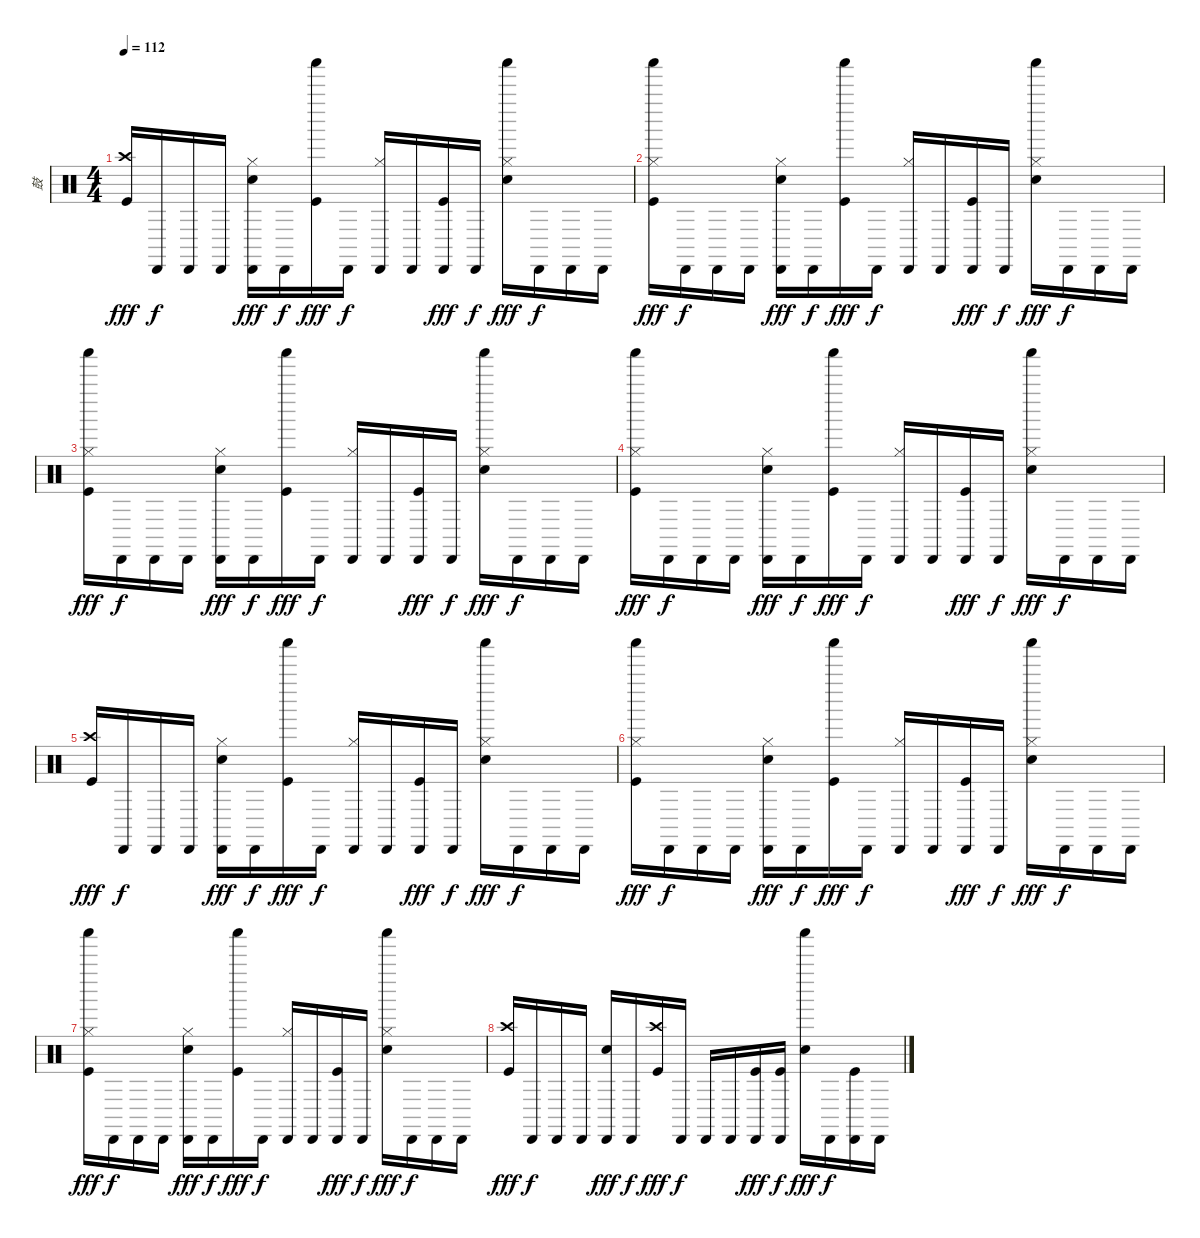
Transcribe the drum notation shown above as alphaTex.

\track ("鼓" "鼓") {instrument percussion}
\staff {score}
\articulation defaults
\ts (4 4)
\tempo 112
\clef neutral
\ks c
("Crash high (hit)" "Kick (hit)").16{dy fff} "Cabasa (hit)".16{dy f} "Cabasa (hit)".16 "Cabasa (hit)".16 ("Cabasa (hit)" "Hi-Hat (closed)" "Electric Snare (hit)").16{dy fff} "Cabasa (hit)".16{dy f} ("Shaker (hit)" "Kick (hit)").16{dy fff} "Cabasa (hit)".16{dy f} ("Cabasa (hit)" "Hi-Hat (closed)").16 "Cabasa (hit)".16 ("Cabasa (hit)" "Kick (hit)").16{dy fff} "Cabasa (hit)".16{dy f} ("Shaker (hit)" "Hi-Hat (closed)" "Electric Snare (hit)").16{dy fff} "Cabasa (hit)".16{dy f} "Cabasa (hit)".16 "Cabasa (hit)".16 |
("Shaker (hit)" "Hi-Hat (closed)" "Kick (hit)").16{dy fff} "Cabasa (hit)".16{dy f} "Cabasa (hit)".16 "Cabasa (hit)".16 ("Cabasa (hit)" "Hi-Hat (closed)" "Electric Snare (hit)").16{dy fff} "Cabasa (hit)".16{dy f} ("Shaker (hit)" "Kick (hit)").16{dy fff} "Cabasa (hit)".16{dy f} ("Cabasa (hit)" "Hi-Hat (closed)").16 "Cabasa (hit)".16 ("Cabasa (hit)" "Kick (hit)").16{dy fff} "Cabasa (hit)".16{dy f} ("Shaker (hit)" "Hi-Hat (closed)" "Electric Snare (hit)").16{dy fff} "Cabasa (hit)".16{dy f} "Cabasa (hit)".16 "Cabasa (hit)".16 |
("Shaker (hit)" "Hi-Hat (closed)" "Kick (hit)").16{dy fff} "Cabasa (hit)".16{dy f} "Cabasa (hit)".16 "Cabasa (hit)".16 ("Cabasa (hit)" "Hi-Hat (closed)" "Electric Snare (hit)").16{dy fff} "Cabasa (hit)".16{dy f} ("Shaker (hit)" "Kick (hit)").16{dy fff} "Cabasa (hit)".16{dy f} ("Cabasa (hit)" "Hi-Hat (closed)").16 "Cabasa (hit)".16 ("Cabasa (hit)" "Kick (hit)").16{dy fff} "Cabasa (hit)".16{dy f} ("Shaker (hit)" "Hi-Hat (closed)" "Electric Snare (hit)").16{dy fff} "Cabasa (hit)".16{dy f} "Cabasa (hit)".16 "Cabasa (hit)".16 |
("Shaker (hit)" "Hi-Hat (closed)" "Kick (hit)").16{dy fff} "Cabasa (hit)".16{dy f} "Cabasa (hit)".16 "Cabasa (hit)".16 ("Cabasa (hit)" "Hi-Hat (closed)" "Electric Snare (hit)").16{dy fff} "Cabasa (hit)".16{dy f} ("Shaker (hit)" "Kick (hit)").16{dy fff} "Cabasa (hit)".16{dy f} ("Cabasa (hit)" "Hi-Hat (closed)").16 "Cabasa (hit)".16 ("Cabasa (hit)" "Kick (hit)").16{dy fff} "Cabasa (hit)".16{dy f} ("Shaker (hit)" "Hi-Hat (closed)" "Electric Snare (hit)").16{dy fff} "Cabasa (hit)".16{dy f} "Cabasa (hit)".16 "Cabasa (hit)".16 |
("Crash high (hit)" "Kick (hit)").16{dy fff} "Cabasa (hit)".16{dy f} "Cabasa (hit)".16 "Cabasa (hit)".16 ("Cabasa (hit)" "Hi-Hat (closed)" "Electric Snare (hit)").16{dy fff} "Cabasa (hit)".16{dy f} ("Shaker (hit)" "Kick (hit)").16{dy fff} "Cabasa (hit)".16{dy f} ("Cabasa (hit)" "Hi-Hat (closed)").16 "Cabasa (hit)".16 ("Cabasa (hit)" "Kick (hit)").16{dy fff} "Cabasa (hit)".16{dy f} ("Shaker (hit)" "Hi-Hat (closed)" "Electric Snare (hit)").16{dy fff} "Cabasa (hit)".16{dy f} "Cabasa (hit)".16 "Cabasa (hit)".16 |
("Shaker (hit)" "Hi-Hat (closed)" "Kick (hit)").16{dy fff} "Cabasa (hit)".16{dy f} "Cabasa (hit)".16 "Cabasa (hit)".16 ("Cabasa (hit)" "Hi-Hat (closed)" "Electric Snare (hit)").16{dy fff} "Cabasa (hit)".16{dy f} ("Shaker (hit)" "Kick (hit)").16{dy fff} "Cabasa (hit)".16{dy f} ("Cabasa (hit)" "Hi-Hat (closed)").16 "Cabasa (hit)".16 ("Cabasa (hit)" "Kick (hit)").16{dy fff} "Cabasa (hit)".16{dy f} ("Shaker (hit)" "Hi-Hat (closed)" "Electric Snare (hit)").16{dy fff} "Cabasa (hit)".16{dy f} "Cabasa (hit)".16 "Cabasa (hit)".16 |
("Shaker (hit)" "Hi-Hat (closed)" "Kick (hit)").16{dy fff} "Cabasa (hit)".16{dy f} "Cabasa (hit)".16 "Cabasa (hit)".16 ("Cabasa (hit)" "Hi-Hat (closed)" "Electric Snare (hit)").16{dy fff} "Cabasa (hit)".16{dy f} ("Shaker (hit)" "Kick (hit)").16{dy fff} "Cabasa (hit)".16{dy f} ("Cabasa (hit)" "Hi-Hat (closed)").16 "Cabasa (hit)".16 ("Cabasa (hit)" "Kick (hit)").16{dy fff} "Cabasa (hit)".16{dy f} ("Shaker (hit)" "Hi-Hat (closed)" "Electric Snare (hit)").16{dy fff} "Cabasa (hit)".16{dy f} "Cabasa (hit)".16 "Cabasa (hit)".16 |
("Crash high (hit)" "Kick (hit)").16{dy fff} "Cabasa (hit)".16{dy f} "Cabasa (hit)".16 "Cabasa (hit)".16 ("Cabasa (hit)" "Electric Snare (hit)").16{dy fff} "Cabasa (hit)".16{dy f} ("Crash high (hit)" "Kick (hit)").16{dy fff} "Cabasa (hit)".16{dy f} "Cabasa (hit)".16 "Cabasa (hit)".16 ("Cabasa (hit)" "Kick (hit)").16{dy fff} ("Cabasa (hit)" "Kick (hit)").16{dy f} ("Shaker (hit)" "Electric Snare (hit)").16{dy fff} "Cabasa (hit)".16{dy f} ("Cabasa (hit)" "Kick (hit)").16 "Cabasa (hit)".16
